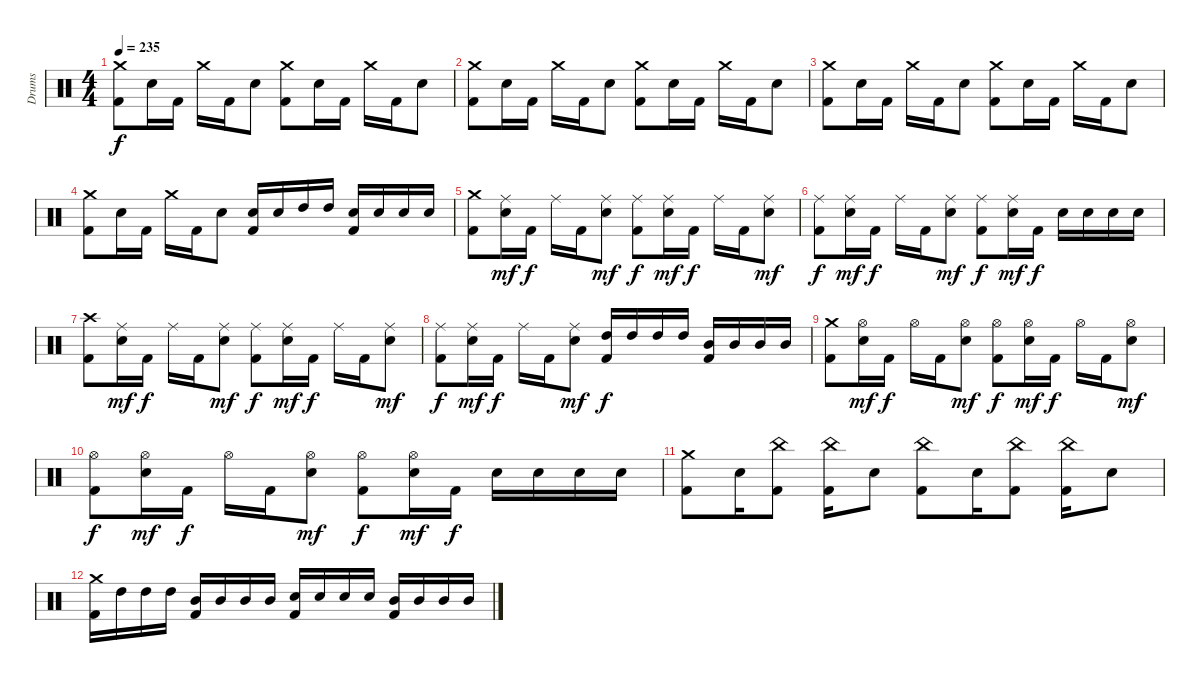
\track ("Drums" "Drums") {instrument percussion}
\staff {score}
\articulation defaults
\ts (4 4)
\tempo 235
\clef neutral
\ks c
("Crash medium (hit)" "Kick (hit) 2").8{dy f volume 7} "Electric Snare (hit)".16 "Kick (hit) 2".16 "Crash medium (hit)".16 "Kick (hit) 2".16 "Electric Snare (hit)".8 ("Crash medium (hit)" "Kick (hit) 2").8 "Electric Snare (hit)".16 "Kick (hit) 2".16 "Crash medium (hit)".16 "Kick (hit) 2".16 "Electric Snare (hit)".8 |
("Crash medium (hit)" "Kick (hit) 2").8 "Electric Snare (hit)".16 "Kick (hit) 2".16 "Crash medium (hit)".16 "Kick (hit) 2".16 "Electric Snare (hit)".8 ("Crash medium (hit)" "Kick (hit) 2").8 "Electric Snare (hit)".16 "Kick (hit) 2".16 "Crash medium (hit)".16 "Kick (hit) 2".16 "Electric Snare (hit)".8 |
("Crash medium (hit)" "Kick (hit) 2").8 "Electric Snare (hit)".16 "Kick (hit) 2".16 "Crash medium (hit)".16 "Kick (hit) 2".16 "Electric Snare (hit)".8 ("Crash medium (hit)" "Kick (hit) 2").8 "Electric Snare (hit)".16 "Kick (hit) 2".16 "Crash medium (hit)".16 "Kick (hit) 2".16 "Electric Snare (hit)".8 |
("Crash medium (hit)" "Kick (hit) 2").8 "Electric Snare (hit)".16 "Kick (hit) 2".16 "Crash medium (hit)".16 "Kick (hit) 2".16 "Electric Snare (hit)".8 ("Electric Snare (hit)" "Kick (hit) 2").16 "Electric Snare (hit)".16 "High Tom (hit)".16 "High Tom (hit)".16 ("Electric Snare (hit)" "Kick (hit) 2").16 "Electric Snare (hit)".16 "Electric Snare (hit)".16 "Electric Snare (hit)".16 |
("Crash medium (hit)" "Kick (hit) 2").8{volume 0} ("Ride (middle)" "Electric Snare (hit)").16{dy mf} "Kick (hit) 2".16{dy f} "Ride (middle)".16 "Kick (hit) 2".16 ("Ride (middle)" "Electric Snare (hit)").8{dy mf} ("Ride (middle)" "Kick (hit) 2").8{dy f} ("Ride (middle)" "Electric Snare (hit)").16{dy mf} "Kick (hit) 2".16{dy f} "Ride (middle)".16 "Kick (hit) 2".16 ("Ride (middle)" "Electric Snare (hit)").8{dy mf} |
("Ride (middle)" "Kick (hit) 2").8{dy f} ("Ride (middle)" "Electric Snare (hit)").16{dy mf} "Kick (hit) 2".16{dy f} "Ride (middle)".16 "Kick (hit) 2".16 ("Ride (middle)" "Electric Snare (hit)").8{dy mf} ("Ride (middle)" "Kick (hit) 2").8{dy f} ("Ride (middle)" "Electric Snare (hit)").16{dy mf} "Kick (hit) 2".16{dy f} "Electric Snare (hit)".16 "Electric Snare (hit)".16 "Electric Snare (hit)".16 "Electric Snare (hit)".16 |
("Crash high (hit)" "Kick (hit) 2").8 ("Ride (middle)" "Electric Snare (hit)").16{dy mf} "Kick (hit) 2".16{dy f} "Ride (middle)".16 "Kick (hit) 2".16 ("Ride (middle)" "Electric Snare (hit)").8{dy mf} ("Ride (middle)" "Kick (hit) 2").8{dy f} ("Ride (middle)" "Electric Snare (hit)").16{dy mf} "Kick (hit) 2".16{dy f} "Ride (middle)".16 "Kick (hit) 2".16 ("Ride (middle)" "Electric Snare (hit)").8{dy mf} |
("Ride (middle)" "Kick (hit) 2").8{dy f} ("Ride (middle)" "Electric Snare (hit)").16{dy mf} "Kick (hit) 2".16{dy f} "Ride (middle)".16 "Kick (hit) 2".16 ("Ride (middle)" "Electric Snare (hit)").8{dy mf} ("High Tom (hit)" "Kick (hit) 2").16{dy f} "High Tom (hit)".16 "High Tom (hit)".16 "High Tom (hit)".16 ("Mid Tom (hit)" "Kick (hit) 2").16 "Mid Tom (hit)".16 "Mid Tom (hit)".16 "Mid Tom (hit)".16 |
("Crash medium (hit)" "Kick (hit) 2").8 ("Hi-Hat (open)" "Electric Snare (hit)").16{dy mf} "Kick (hit) 2".16{dy f} "Hi-Hat (open)".16 "Kick (hit) 2".16 ("Hi-Hat (open)" "Electric Snare (hit)").8{dy mf} ("Hi-Hat (open)" "Kick (hit) 2").8{dy f} ("Hi-Hat (open)" "Electric Snare (hit)").16{dy mf} "Kick (hit) 2".16{dy f} "Hi-Hat (open)".16 "Kick (hit) 2".16 ("Hi-Hat (open)" "Electric Snare (hit)").8{dy mf} |
("Hi-Hat (open)" "Kick (hit) 2").8{dy f} ("Hi-Hat (open)" "Electric Snare (hit)").16{dy mf} "Kick (hit) 2".16{dy f} "Hi-Hat (open)".16 "Kick (hit) 2".16 ("Hi-Hat (open)" "Electric Snare (hit)").8{dy mf} ("Hi-Hat (open)" "Kick (hit) 2").8{dy f} ("Hi-Hat (open)" "Electric Snare (hit)").16{dy mf} "Kick (hit) 2".16{dy f} "Electric Snare (hit)".16 "Electric Snare (hit)".16 "Electric Snare (hit)".16 "Electric Snare (hit)".16 |
("Crash medium (hit)" "Kick (hit) 2").8 "Electric Snare (hit)".16 ("China (hit)" "Kick (hit) 2").8 ("China (hit)" "Kick (hit) 2").16 "Electric Snare (hit)".8 ("China (hit)" "Kick (hit) 2").8 "Electric Snare (hit)".16 ("China (hit)" "Kick (hit) 2").8 ("China (hit)" "Kick (hit) 2").16 "Electric Snare (hit)".8 |
("Crash medium (hit)" "Kick (hit) 2").16 "High Tom (hit)".16 "High Tom (hit)".16 "High Tom (hit)".16 ("Mid Tom (hit)" "Kick (hit) 2").16 "Mid Tom (hit)".16 "Mid Tom (hit)".16 "Mid Tom (hit)".16 ("Electric Snare (hit)" "Kick (hit) 2").16 "Electric Snare (hit)".16 "Electric Snare (hit)".16 "Electric Snare (hit)".16 ("Mid Tom (hit)" "Kick (hit) 2").16 "Mid Tom (hit)".16 "Mid Tom (hit)".16 "Mid Tom (hit)".16
